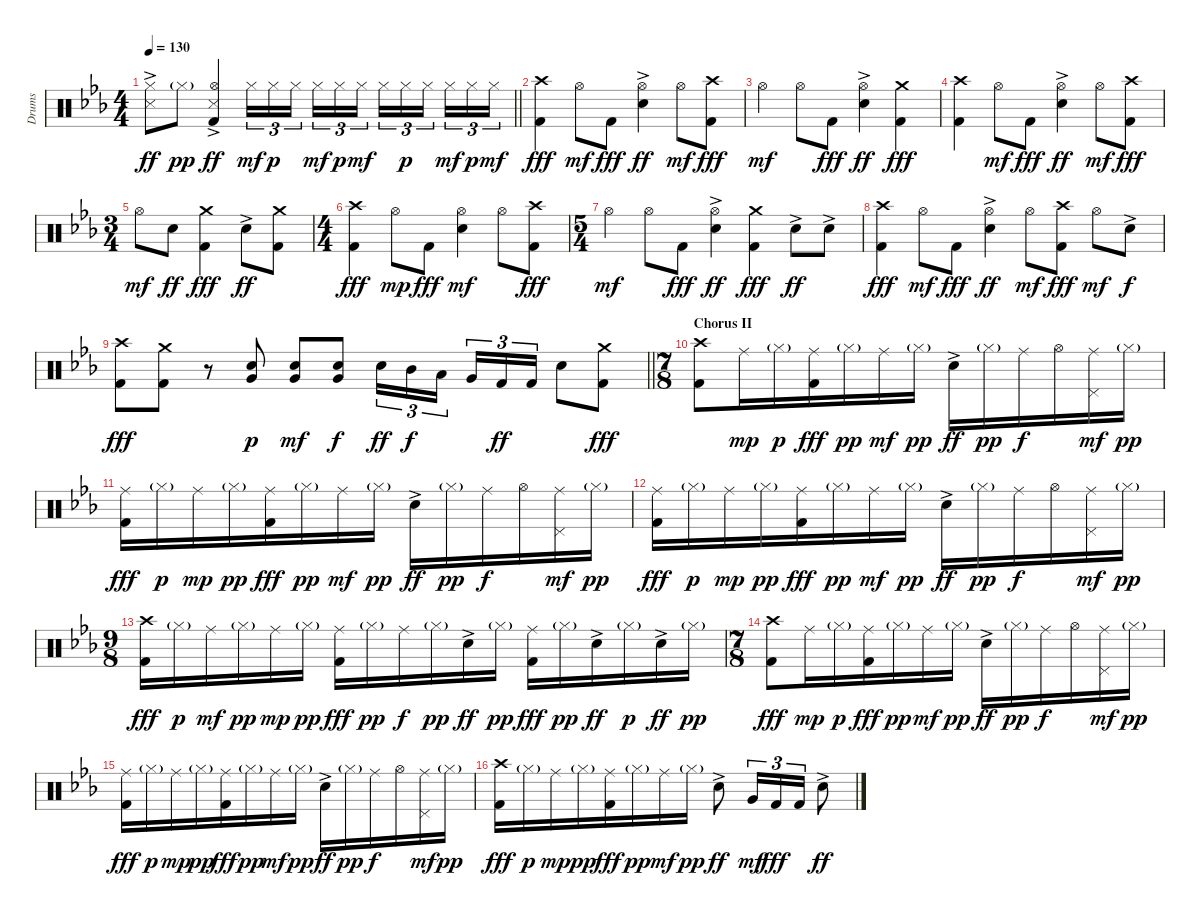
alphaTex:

\track ("Drums" "Drums") {instrument percussion}
\staff {score}
\articulation defaults
\ts (4 4)
\tempo 130
\clef neutral
\barLineRight lightlight
\ks cminor
("Hi-Hat (closed)" "Snare (side stick) 3"{ac}).8{dy ff} "Hi-Hat (closed)"{g}.8{dy pp} ("Hi-Hat (open)" "Snare (side stick) 3"{ac} "Kick (hit) 2").4{dy ff} "Hi-Hat (closed)".16{tu (3 2) dy mf} "Hi-Hat (closed)".16{tu (3 2) dy p} "Hi-Hat (closed)".16{tu (3 2) beam splitsecondary} "Hi-Hat (closed)".16{tu (3 2) dy mf} "Hi-Hat (closed)".16{tu (3 2) dy p} "Hi-Hat (closed)".16{tu (3 2) dy mf} "Hi-Hat (closed)".16{tu (3 2)} "Hi-Hat (closed)".16{tu (3 2) dy p} "Hi-Hat (closed)".16{tu (3 2) beam splitsecondary} "Hi-Hat (closed)".16{tu (3 2) dy mf} "Hi-Hat (closed)".16{tu (3 2) dy p} "Hi-Hat (closed)".16{tu (3 2) dy mf} |
("Crash high (hit)" "Kick (hit) 2").4{dy fff} "Hi-Hat (open)".8{dy mf} "Kick (hit) 2".8{dy fff} ("Hi-Hat (open)" "Electric Snare (hit)"{ac}).4{dy ff} "Hi-Hat (open)".8{dy mf} ("Crash high (hit)" "Kick (hit) 2").8{dy fff} |
"Hi-Hat (open)".4{dy mf} "Hi-Hat (open)".8 "Kick (hit) 2".8{dy fff} ("Hi-Hat (open)" "Electric Snare (hit)"{ac}).4{dy ff} ("Crash medium (hit)" "Kick (hit) 2").4{dy fff} |
("Crash high (hit)" "Kick (hit) 2").4 "Hi-Hat (open)".8{dy mf} "Kick (hit) 2".8{dy fff} ("Hi-Hat (open)" "Electric Snare (hit)"{ac}).4{dy ff} "Hi-Hat (open)".8{dy mf} ("Crash high (hit)" "Kick (hit) 2").8{dy fff} |
\ts (3 4)
"Hi-Hat (open)".8{dy mf} "Electric Snare (hit)".8{dy ff} ("Crash medium (hit)" "Kick (hit) 2").4{dy fff} "Electric Snare (hit)"{ac}.8{dy ff} ("Crash medium (hit)" "Kick (hit) 2").8 |
\ts (4 4)
("Crash high (hit)" "Kick (hit) 2").4{dy fff} "Hi-Hat (open)".8{dy mp} "Kick (hit) 2".8{dy fff} ("Hi-Hat (open)" "Electric Snare (hit)").4{dy mf} "Hi-Hat (open)".8 ("Crash high (hit)" "Kick (hit) 2").8{dy fff} |
\ts (5 4)
"Hi-Hat (open)".4{dy mf} "Hi-Hat (open)".8 "Kick (hit) 2".8{dy fff} ("Hi-Hat (open)" "Electric Snare (hit)"{ac}).4{dy ff} ("Crash medium (hit)" "Kick (hit) 2").4{dy fff} "Electric Snare (hit)"{ac}.8{dy ff} "Electric Snare (hit)"{ac}.8 |
("Crash high (hit)" "Kick (hit) 2").4{dy fff} "Hi-Hat (open)".8{dy mf} "Kick (hit) 2".8{dy fff} ("Hi-Hat (open)" "Electric Snare (hit)"{ac}).4{dy ff} "Hi-Hat (open)".8{dy mf} ("Crash high (hit)" "Kick (hit) 2").8{dy fff} "Hi-Hat (open)".8{dy mf} "Electric Snare (hit)"{ac}.8{dy f} |
\barLineRight lightlight
("Crash high (hit)" "Kick (hit) 2").8{dy fff} ("Crash medium (hit)" "Kick (hit) 2").8 r.8 ("Very Low Tom (hit)" "Electric Snare (hit)").8{dy p} ("Very Low Tom (hit)" "Electric Snare (hit)").8{dy mf} ("Very Low Tom (hit)" "Electric Snare (hit)").8{dy f} "Electric Snare (hit)".16{tu (3 2) dy ff} "Mid Tom (hit)".16{tu (3 2) dy f} "Low Tom (hit)".16{tu (3 2) beam splitsecondary} "Very Low Tom (hit)".16{tu (3 2)} "Kick (hit) 2".16{tu (3 2) dy ff} "Kick (hit) 2".16{tu (3 2)} "Electric Snare (hit)".8 ("Crash medium (hit)" "Kick (hit) 2").8{dy fff} |
\ts (7 8)
\section ("" "Chorus II")
("Crash high (hit)" "Kick (hit) 2").8 "Ride (middle)".16{dy mp} "Hi-Hat (closed)"{g}.16{dy p} ("Ride (middle)" "Kick (hit) 2").16{dy fff} "Hi-Hat (closed)"{g}.16{dy pp} "Ride (middle)".16{dy mf} "Hi-Hat (closed)"{g}.16{dy pp} "Electric Snare (hit)"{ac}.16{dy ff} "Hi-Hat (closed)"{g}.16{dy pp} "Ride (middle)".16{dy f} "Hi-Hat (open)".16 ("Ride (middle)" "Pedal Hi-Hat (hit)").16{dy mf} "Hi-Hat (closed)"{g}.16{dy pp} |
("Ride (middle)" "Kick (hit) 2").16{dy fff} "Hi-Hat (closed)"{g}.16{dy p} "Ride (middle)".16{dy mp} "Hi-Hat (closed)"{g}.16{dy pp} ("Ride (middle)" "Kick (hit) 2").16{dy fff} "Hi-Hat (closed)"{g}.16{dy pp} "Ride (middle)".16{dy mf} "Hi-Hat (closed)"{g}.16{dy pp} "Electric Snare (hit)"{ac}.16{dy ff} "Hi-Hat (closed)"{g}.16{dy pp} "Ride (middle)".16{dy f} "Hi-Hat (open)".16 ("Ride (middle)" "Pedal Hi-Hat (hit)").16{dy mf} "Hi-Hat (closed)"{g}.16{dy pp} |
("Ride (middle)" "Kick (hit) 2").16{dy fff} "Hi-Hat (closed)"{g}.16{dy p} "Ride (middle)".16{dy mp} "Hi-Hat (closed)"{g}.16{dy pp} ("Ride (middle)" "Kick (hit) 2").16{dy fff} "Hi-Hat (closed)"{g}.16{dy pp} "Ride (middle)".16{dy mf} "Hi-Hat (closed)"{g}.16{dy pp} "Electric Snare (hit)"{ac}.16{dy ff} "Hi-Hat (closed)"{g}.16{dy pp} "Ride (middle)".16{dy f} "Hi-Hat (open)".16 ("Ride (middle)" "Pedal Hi-Hat (hit)").16{dy mf} "Hi-Hat (closed)"{g}.16{dy pp} |
\ts (9 8)
("Crash high (hit)" "Kick (hit) 2").16{dy fff} "Hi-Hat (closed)"{g}.16{dy p} "Ride (middle)".16{dy mf} "Hi-Hat (closed)"{g}.16{dy pp} "Ride (middle)".16{dy mp} "Hi-Hat (closed)"{g}.16{dy pp} ("Ride (middle)" "Kick (hit) 2").16{dy fff} "Hi-Hat (closed)"{g}.16{dy pp} "Ride (middle)".16{dy f} "Hi-Hat (closed)"{g}.16{dy pp} "Electric Snare (hit)"{ac}.16{dy ff} "Hi-Hat (closed)"{g}.16{dy pp} ("Ride (middle)" "Kick (hit) 2").16{dy fff} "Hi-Hat (closed)"{g}.16{dy pp} "Electric Snare (hit)"{ac}.16{dy ff} "Hi-Hat (closed)"{g}.16{dy p} "Electric Snare (hit)"{ac}.16{dy ff} "Hi-Hat (closed)"{g}.16{dy pp} |
\ts (7 8)
("Crash high (hit)" "Kick (hit) 2").8{dy fff} "Ride (middle)".16{dy mp} "Hi-Hat (closed)"{g}.16{dy p} ("Ride (middle)" "Kick (hit) 2").16{dy fff} "Hi-Hat (closed)"{g}.16{dy pp} "Ride (middle)".16{dy mf} "Hi-Hat (closed)"{g}.16{dy pp} "Electric Snare (hit)"{ac}.16{dy ff} "Hi-Hat (closed)"{g}.16{dy pp} "Ride (middle)".16{dy f} "Hi-Hat (open)".16 ("Ride (middle)" "Pedal Hi-Hat (hit)").16{dy mf} "Hi-Hat (closed)"{g}.16{dy pp} |
("Ride (middle)" "Kick (hit) 2").16{dy fff} "Hi-Hat (closed)"{g}.16{dy p} "Ride (middle)".16{dy mp} "Hi-Hat (closed)"{g}.16{dy pp} ("Ride (middle)" "Kick (hit) 2").16{dy fff} "Hi-Hat (closed)"{g}.16{dy pp} "Ride (middle)".16{dy mf} "Hi-Hat (closed)"{g}.16{dy pp} "Electric Snare (hit)"{ac}.16{dy ff} "Hi-Hat (closed)"{g}.16{dy pp} "Ride (middle)".16{dy f} "Hi-Hat (open)".16 ("Ride (middle)" "Pedal Hi-Hat (hit)").16{dy mf} "Hi-Hat (closed)"{g}.16{dy pp} |
("Crash high (hit)" "Kick (hit) 2").16{dy fff} "Hi-Hat (closed)"{g}.16{dy p} "Ride (middle)".16{dy mp} "Hi-Hat (closed)"{g}.16{dy pp} ("Ride (middle)" "Kick (hit) 2").16{dy fff} "Hi-Hat (closed)"{g}.16{dy pp} "Ride (middle)".16{dy mf} "Hi-Hat (closed)"{g}.16{dy pp} "Electric Snare (hit)"{ac}.8{dy ff} "Very Low Tom (hit)".16{tu (3 2) dy mf} "Kick (hit) 2".16{tu (3 2) dy fff} "Kick (hit) 2".16{tu (3 2)} "Electric Snare (hit)"{ac}.8{dy ff}
